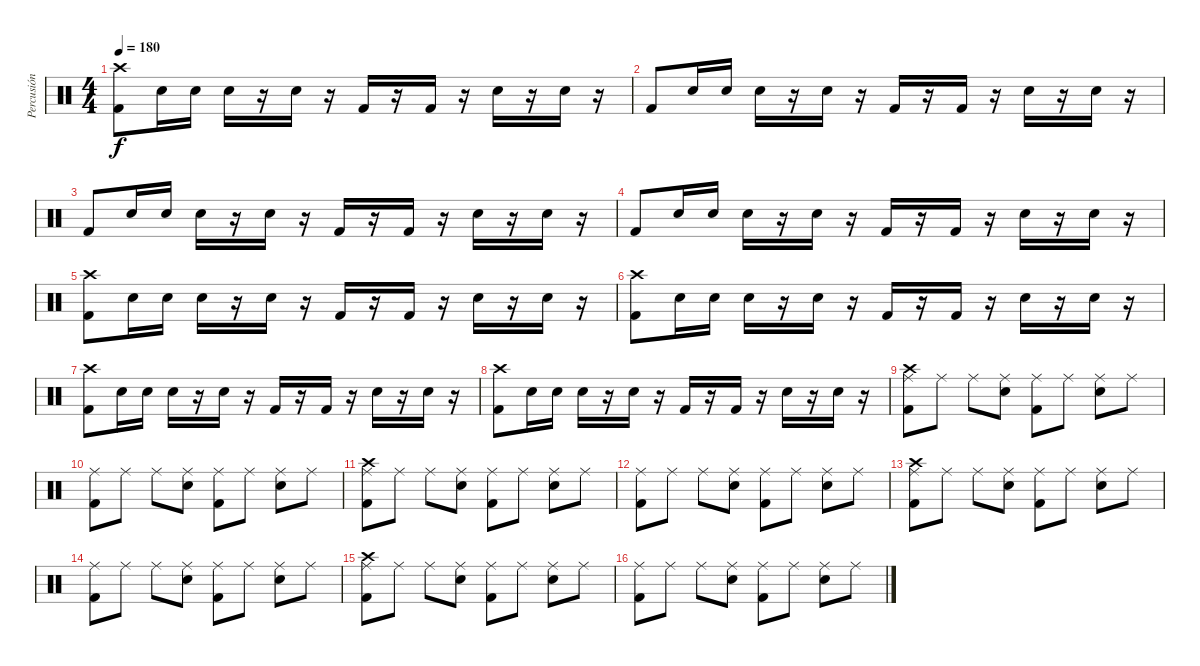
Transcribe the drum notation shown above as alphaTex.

\track ("Percusión" "Percusión") {instrument percussion}
\staff {score}
\articulation defaults
\ts (4 4)
\tempo 180
\clef neutral
\ks c
("Kick (hit) 2" "Crash high (hit)").8{dy f} "Snare (hit) 2".16{volume 10} "Snare (hit) 2".16 "Snare (hit) 2".16 r.16 "Snare (hit) 2".16{volume 13} r.16 "Kick (hit) 2".16 r.16 "Kick (hit) 2".16 r.16 "Snare (hit) 2".16 r.16 "Snare (hit) 2".16 r.16 |
"Kick (hit) 2".8 "Snare (hit) 2".16{volume 10} "Snare (hit) 2".16 "Snare (hit) 2".16 r.16 "Snare (hit) 2".16{volume 13} r.16 "Kick (hit) 2".16 r.16 "Kick (hit) 2".16 r.16 "Snare (hit) 2".16 r.16 "Snare (hit) 2".16 r.16 |
"Kick (hit) 2".8 "Snare (hit) 2".16{volume 10} "Snare (hit) 2".16 "Snare (hit) 2".16 r.16 "Snare (hit) 2".16{volume 13} r.16 "Kick (hit) 2".16 r.16 "Kick (hit) 2".16 r.16 "Snare (hit) 2".16 r.16 "Snare (hit) 2".16 r.16 |
"Kick (hit) 2".8 "Snare (hit) 2".16{volume 10} "Snare (hit) 2".16 "Snare (hit) 2".16 r.16 "Snare (hit) 2".16{volume 13} r.16 "Kick (hit) 2".16 r.16 "Kick (hit) 2".16 r.16 "Snare (hit) 2".16 r.16 "Snare (hit) 2".16 r.16 |
("Kick (hit) 2" "Crash high (hit)").8 "Snare (hit) 2".16{volume 10} "Snare (hit) 2".16 "Snare (hit) 2".16 r.16 "Snare (hit) 2".16{volume 13} r.16 "Kick (hit) 2".16 r.16 "Kick (hit) 2".16 r.16 "Snare (hit) 2".16 r.16 "Snare (hit) 2".16 r.16 |
("Kick (hit) 2" "Crash high (hit)").8 "Snare (hit) 2".16{volume 10} "Snare (hit) 2".16 "Snare (hit) 2".16 r.16 "Snare (hit) 2".16{volume 13} r.16 "Kick (hit) 2".16 r.16 "Kick (hit) 2".16 r.16 "Snare (hit) 2".16 r.16 "Snare (hit) 2".16 r.16 |
("Kick (hit) 2" "Crash high (hit)").8 "Snare (hit) 2".16{volume 10} "Snare (hit) 2".16 "Snare (hit) 2".16 r.16 "Snare (hit) 2".16{volume 13} r.16 "Kick (hit) 2".16 r.16 "Kick (hit) 2".16 r.16 "Snare (hit) 2".16 r.16 "Snare (hit) 2".16 r.16 |
("Kick (hit) 2" "Crash high (hit)").8 "Snare (hit) 2".16{volume 10} "Snare (hit) 2".16 "Snare (hit) 2".16 r.16 "Snare (hit) 2".16{volume 13} r.16 "Kick (hit) 2".16 r.16 "Kick (hit) 2".16 r.16 "Snare (hit) 2".16 r.16 "Snare (hit) 2".16 r.16 |
("Kick (hit) 2" "Crash high (hit)" "Ride (middle)").8 "Ride (middle)".8 "Ride (middle)".8 ("Snare (hit) 2" "Ride (middle)").8 ("Kick (hit) 2" "Ride (middle)").8 "Ride (middle)".8 ("Snare (hit) 2" "Ride (middle)").8 "Ride (middle)".8 |
("Kick (hit) 2" "Ride (middle)").8 "Ride (middle)".8 "Ride (middle)".8 ("Snare (hit) 2" "Ride (middle)").8 ("Kick (hit) 2" "Ride (middle)").8 "Ride (middle)".8 ("Snare (hit) 2" "Ride (middle)").8 "Ride (middle)".8 |
("Kick (hit) 2" "Crash high (hit)" "Ride (middle)").8 "Ride (middle)".8 "Ride (middle)".8 ("Snare (hit) 2" "Ride (middle)").8 ("Kick (hit) 2" "Ride (middle)").8 "Ride (middle)".8 ("Snare (hit) 2" "Ride (middle)").8 "Ride (middle)".8 |
("Kick (hit) 2" "Ride (middle)").8 "Ride (middle)".8 "Ride (middle)".8 ("Snare (hit) 2" "Ride (middle)").8 ("Kick (hit) 2" "Ride (middle)").8 "Ride (middle)".8 ("Snare (hit) 2" "Ride (middle)").8 "Ride (middle)".8 |
("Kick (hit) 2" "Crash high (hit)" "Ride (middle)").8 "Ride (middle)".8 "Ride (middle)".8 ("Snare (hit) 2" "Ride (middle)").8 ("Kick (hit) 2" "Ride (middle)").8 "Ride (middle)".8 ("Snare (hit) 2" "Ride (middle)").8 "Ride (middle)".8 |
("Kick (hit) 2" "Ride (middle)").8 "Ride (middle)".8 "Ride (middle)".8 ("Snare (hit) 2" "Ride (middle)").8 ("Kick (hit) 2" "Ride (middle)").8 "Ride (middle)".8 ("Snare (hit) 2" "Ride (middle)").8 "Ride (middle)".8 |
("Kick (hit) 2" "Crash high (hit)" "Ride (middle)").8 "Ride (middle)".8 "Ride (middle)".8 ("Snare (hit) 2" "Ride (middle)").8 ("Kick (hit) 2" "Ride (middle)").8 "Ride (middle)".8 ("Snare (hit) 2" "Ride (middle)").8 "Ride (middle)".8 |
("Kick (hit) 2" "Ride (middle)").8 "Ride (middle)".8 "Ride (middle)".8 ("Snare (hit) 2" "Ride (middle)").8 ("Kick (hit) 2" "Ride (middle)").8 "Ride (middle)".8 ("Snare (hit) 2" "Ride (middle)").8 "Ride (middle)".8
